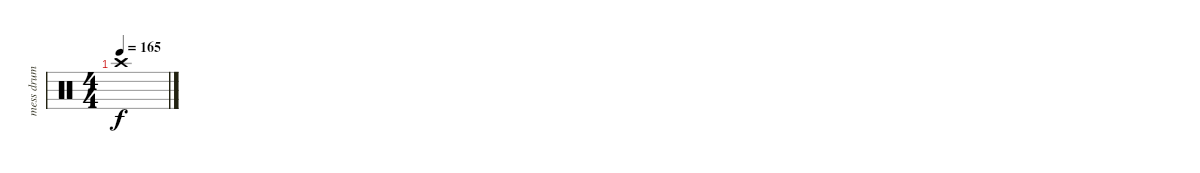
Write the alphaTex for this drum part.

\track ("mess drum" "mess drum") {instrument percussion}
\staff {score}
\articulation defaults
\ts (4 4)
\tempo 165
\clef neutral
\ks c "Crash high (hit)"{t}.1{dy f}
